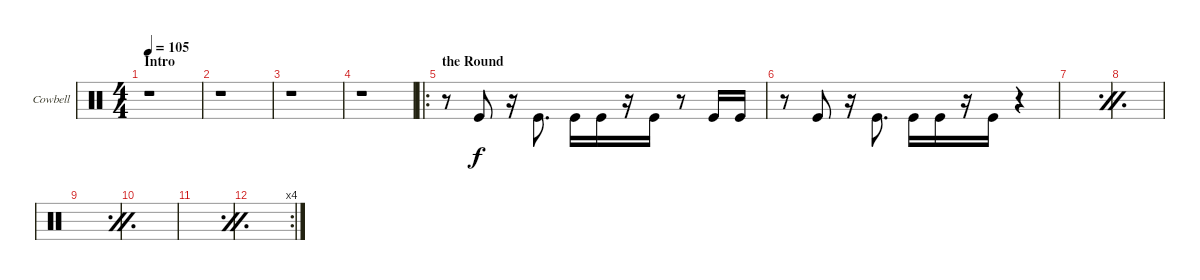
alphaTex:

\defaultSystemsLayout 4
\bracketExtendMode groupsimilarinstruments
\firstSystemTrackNameOrientation horizontal
\otherSystemsTrackNameOrientation horizontal
\track ("Cowbell" "Cowbell") {instrument percussion}
\staff {score}
\articulation defaults
\ts (4 4)
\section ("" "Intro")
\tempo 105
\clef neutral
\ks c
r.1{dy f} |
r.1 |
r.1 |
r.1 |
\ro
\section ("" "the Round")
\scale
0.261396 r.8 "Kick (hit)".8 r.16 "Kick (hit)".8{d} "Kick (hit)".16{beam invert} "Kick (hit)".16 r.16 "Kick (hit)".16 r.8 "Kick (hit)".16 "Kick (hit)".16 |
\scale
0.287466 r.8 "Kick (hit)".8 r.16 "Kick (hit)".8{d} "Kick (hit)".16{beam invert} "Kick (hit)".16 r.16 "Kick (hit)".16 r.4 |
\scale
0.249269
\simile firstofdouble
|
\scale
0.19929
\simile secondofdouble
|
\scale
0.182992
\simile firstofdouble
|
\scale
0.197288
\simile secondofdouble
|
\scale
0.288175
\simile firstofdouble
|
\rc 4
\scale
0.33173
\simile secondofdouble
